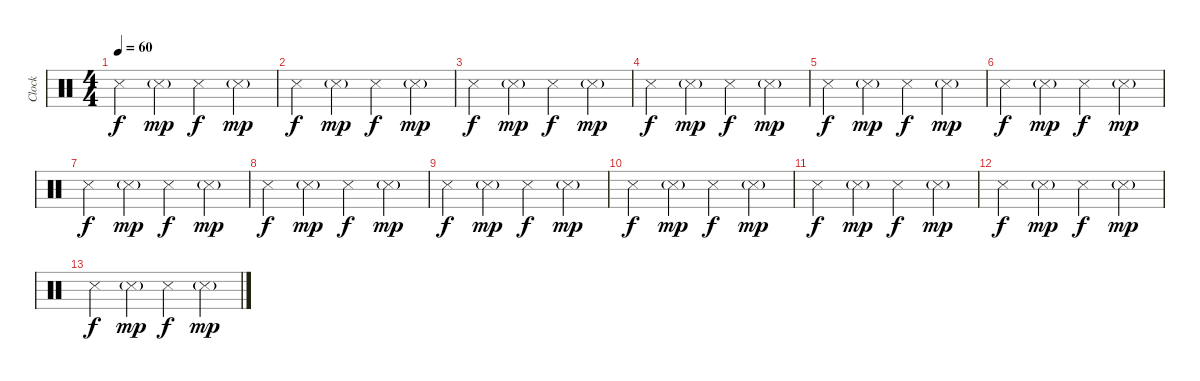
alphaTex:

\track ("Clock" "Clock") {instrument percussion}
\staff {score}
\articulation defaults
\ts (4 4)
\tempo 60
\clef neutral
\ks c "Metronome (hit)".4{dy f} "Metronome (hit)"{g}.4{dy mp} "Metronome (hit)".4{dy f} "Metronome (hit)"{g}.4{dy mp}
|
"Metronome (hit)".4{dy f} "Metronome (hit)"{g}.4{dy mp} "Metronome (hit)".4{dy f} "Metronome (hit)"{g}.4{dy mp} |
"Metronome (hit)".4{dy f} "Metronome (hit)"{g}.4{dy mp} "Metronome (hit)".4{dy f} "Metronome (hit)"{g}.4{dy mp} |
"Metronome (hit)".4{dy f} "Metronome (hit)"{g}.4{dy mp} "Metronome (hit)".4{dy f} "Metronome (hit)"{g}.4{dy mp} |
"Metronome (hit)".4{dy f} "Metronome (hit)"{g}.4{dy mp} "Metronome (hit)".4{dy f} "Metronome (hit)"{g}.4{dy mp} |
"Metronome (hit)".4{dy f} "Metronome (hit)"{g}.4{dy mp} "Metronome (hit)".4{dy f} "Metronome (hit)"{g}.4{dy mp} |
"Metronome (hit)".4{dy f} "Metronome (hit)"{g}.4{dy mp} "Metronome (hit)".4{dy f} "Metronome (hit)"{g}.4{dy mp} |
"Metronome (hit)".4{dy f} "Metronome (hit)"{g}.4{dy mp} "Metronome (hit)".4{dy f} "Metronome (hit)"{g}.4{dy mp} |
"Metronome (hit)".4{dy f} "Metronome (hit)"{g}.4{dy mp} "Metronome (hit)".4{dy f} "Metronome (hit)"{g}.4{dy mp} |
"Metronome (hit)".4{dy f} "Metronome (hit)"{g}.4{dy mp} "Metronome (hit)".4{dy f} "Metronome (hit)"{g}.4{dy mp} |
"Metronome (hit)".4{dy f} "Metronome (hit)"{g}.4{dy mp} "Metronome (hit)".4{dy f} "Metronome (hit)"{g}.4{dy mp} |
"Metronome (hit)".4{dy f volume 0} "Metronome (hit)"{g}.4{dy mp} "Metronome (hit)".4{dy f} "Metronome (hit)"{g}.4{dy mp} |
"Metronome (hit)".4{dy f} "Metronome (hit)"{g}.4{dy mp} "Metronome (hit)".4{dy f} "Metronome (hit)"{g}.4{dy mp}
